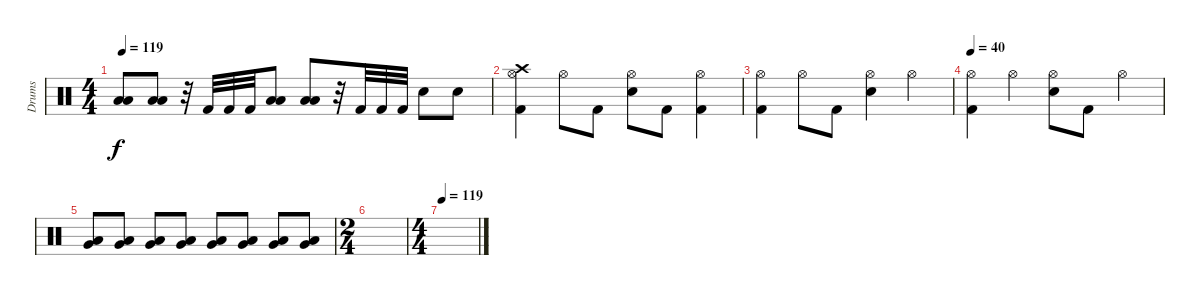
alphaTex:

\track ("Drums" "Drums") {instrument percussion}
\staff {score}
\articulation defaults
\ts (4 4)
\tempo 119
\clef neutral
\ks c
("Low Floor Tom (hit)" "Low Tom (hit)").8{dy f} ("Low Floor Tom (hit)" "Low Tom (hit)").8 r.32 "Kick (hit) 2".32 "Kick (hit) 2".32 "Kick (hit) 2".32 ("Low Floor Tom (hit)" "Low Tom (hit)").8 ("Low Floor Tom (hit)" "Low Tom (hit)").8 r.32 "Kick (hit) 2".32 "Kick (hit) 2".32 "Kick (hit) 2".32 "Electric Snare (hit)".8 "Electric Snare (hit)".8 |
("Kick (hit) 2" "Hi-Hat (open)" "Crash high (hit)").4 "Hi-Hat (open)".8 "Kick (hit) 2".8 ("Electric Snare (hit)" "Hi-Hat (open)").8 "Kick (hit) 2".8 ("Kick (hit) 2" "Hi-Hat (open)").4 |
("Kick (hit) 2" "Hi-Hat (open)").4 "Hi-Hat (open)".8 "Kick (hit) 2".8 ("Electric Snare (hit)" "Hi-Hat (open)").4 "Hi-Hat (open)".4 |
\tempo 40
("Kick (hit) 2" "Hi-Hat (open)").4 "Hi-Hat (open)".4 ("Electric Snare (hit)" "Hi-Hat (open)").8 "Kick (hit) 2".8 "Hi-Hat (open)".4 |
("Low Floor Tom (hit)" "Very Low Tom (hit)").8 ("Low Floor Tom (hit)" "Very Low Tom (hit)").8 ("Low Floor Tom (hit)" "Very Low Tom (hit)").8 ("Low Floor Tom (hit)" "Very Low Tom (hit)").8 ("Low Floor Tom (hit)" "Very Low Tom (hit)").8 ("Low Floor Tom (hit)" "Very Low Tom (hit)").8 ("Low Floor Tom (hit)" "Very Low Tom (hit)").8 ("Low Floor Tom (hit)" "Very Low Tom (hit)").8 |
\ts (2 4)
|
\ts (4 4)
\tempo 119
